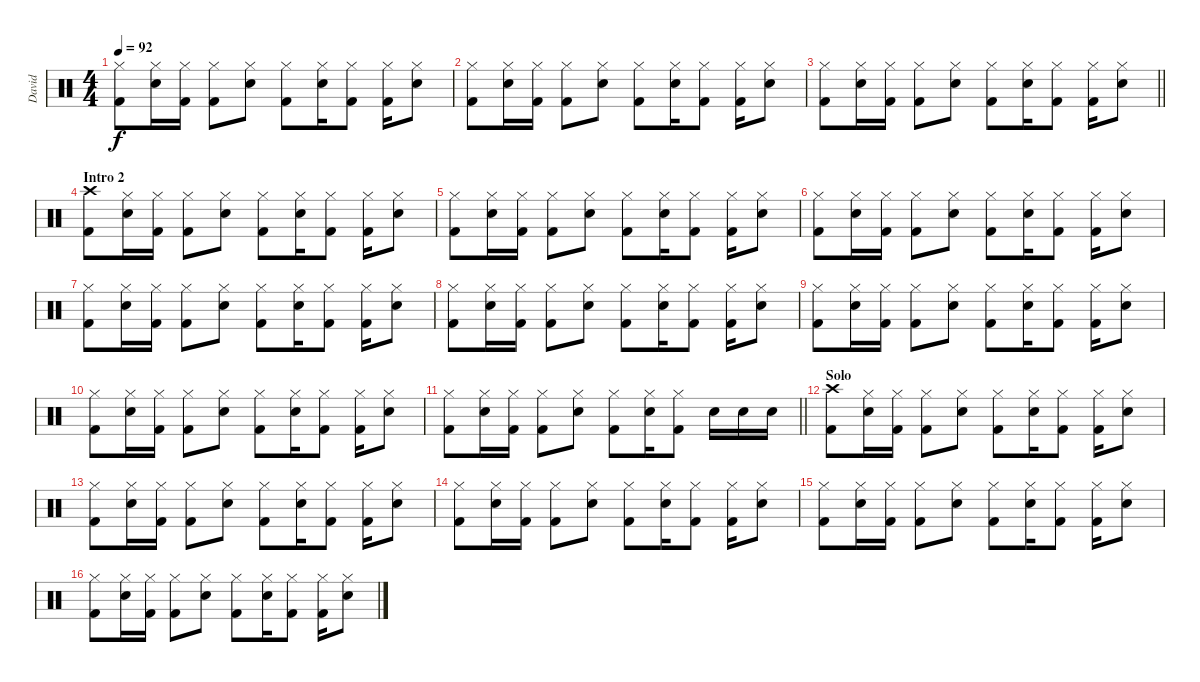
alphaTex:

\track ("David" "David") {instrument percussion}
\staff {score}
\articulation defaults
\ts (4 4)
\tempo 92
\clef neutral
\ks c
("Hi-Hat (closed)" "Kick (hit) 2").8{dy f} ("Hi-Hat (closed)" "Snare (hit) 2").16 ("Hi-Hat (closed)" "Kick (hit) 2").16 ("Hi-Hat (closed)" "Kick (hit) 2").8 ("Hi-Hat (closed)" "Snare (hit) 2").8 ("Hi-Hat (closed)" "Kick (hit) 2").8 ("Hi-Hat (closed)" "Snare (hit) 2").16 ("Hi-Hat (closed)" "Kick (hit) 2").8 ("Hi-Hat (closed)" "Kick (hit) 2").16 ("Hi-Hat (closed)" "Snare (hit) 2").8 |
("Hi-Hat (closed)" "Kick (hit) 2").8 ("Hi-Hat (closed)" "Snare (hit) 2").16 ("Hi-Hat (closed)" "Kick (hit) 2").16 ("Hi-Hat (closed)" "Kick (hit) 2").8 ("Hi-Hat (closed)" "Snare (hit) 2").8 ("Hi-Hat (closed)" "Kick (hit) 2").8 ("Hi-Hat (closed)" "Snare (hit) 2").16 ("Hi-Hat (closed)" "Kick (hit) 2").8 ("Hi-Hat (closed)" "Kick (hit) 2").16 ("Hi-Hat (closed)" "Snare (hit) 2").8 |
\barLineRight lightlight
("Hi-Hat (closed)" "Kick (hit) 2").8 ("Hi-Hat (closed)" "Snare (hit) 2").16 ("Hi-Hat (closed)" "Kick (hit) 2").16 ("Hi-Hat (closed)" "Kick (hit) 2").8 ("Hi-Hat (closed)" "Snare (hit) 2").8 ("Hi-Hat (closed)" "Kick (hit) 2").8 ("Hi-Hat (closed)" "Snare (hit) 2").16 ("Hi-Hat (closed)" "Kick (hit) 2").8 ("Hi-Hat (closed)" "Kick (hit) 2").16 ("Hi-Hat (closed)" "Snare (hit) 2").8 |
\section ("" "Intro 2")
("Crash high (hit)" "Kick (hit) 2").8 ("Hi-Hat (closed)" "Snare (hit) 2").16 ("Hi-Hat (closed)" "Kick (hit) 2").16 ("Hi-Hat (closed)" "Kick (hit) 2").8 ("Hi-Hat (closed)" "Snare (hit) 2").8 ("Hi-Hat (closed)" "Kick (hit) 2").8 ("Hi-Hat (closed)" "Snare (hit) 2").16 ("Hi-Hat (closed)" "Kick (hit) 2").8 ("Hi-Hat (closed)" "Kick (hit) 2").16 ("Hi-Hat (closed)" "Snare (hit) 2").8 |
("Hi-Hat (closed)" "Kick (hit) 2").8 ("Hi-Hat (closed)" "Snare (hit) 2").16 ("Hi-Hat (closed)" "Kick (hit) 2").16 ("Hi-Hat (closed)" "Kick (hit) 2").8 ("Hi-Hat (closed)" "Snare (hit) 2").8 ("Hi-Hat (closed)" "Kick (hit) 2").8 ("Hi-Hat (closed)" "Snare (hit) 2").16 ("Hi-Hat (closed)" "Kick (hit) 2").8 ("Hi-Hat (closed)" "Kick (hit) 2").16 ("Hi-Hat (closed)" "Snare (hit) 2").8 |
("Hi-Hat (closed)" "Kick (hit) 2").8 ("Hi-Hat (closed)" "Snare (hit) 2").16 ("Hi-Hat (closed)" "Kick (hit) 2").16 ("Hi-Hat (closed)" "Kick (hit) 2").8 ("Hi-Hat (closed)" "Snare (hit) 2").8 ("Hi-Hat (closed)" "Kick (hit) 2").8 ("Hi-Hat (closed)" "Snare (hit) 2").16 ("Hi-Hat (closed)" "Kick (hit) 2").8 ("Hi-Hat (closed)" "Kick (hit) 2").16 ("Hi-Hat (closed)" "Snare (hit) 2").8 |
("Hi-Hat (closed)" "Kick (hit) 2").8 ("Hi-Hat (closed)" "Snare (hit) 2").16 ("Hi-Hat (closed)" "Kick (hit) 2").16 ("Hi-Hat (closed)" "Kick (hit) 2").8 ("Hi-Hat (closed)" "Snare (hit) 2").8 ("Hi-Hat (closed)" "Kick (hit) 2").8 ("Hi-Hat (closed)" "Snare (hit) 2").16 ("Hi-Hat (closed)" "Kick (hit) 2").8 ("Hi-Hat (closed)" "Kick (hit) 2").16 ("Hi-Hat (closed)" "Snare (hit) 2").8 |
("Hi-Hat (closed)" "Kick (hit) 2").8 ("Hi-Hat (closed)" "Snare (hit) 2").16 ("Hi-Hat (closed)" "Kick (hit) 2").16 ("Hi-Hat (closed)" "Kick (hit) 2").8 ("Hi-Hat (closed)" "Snare (hit) 2").8 ("Hi-Hat (closed)" "Kick (hit) 2").8 ("Hi-Hat (closed)" "Snare (hit) 2").16 ("Hi-Hat (closed)" "Kick (hit) 2").8 ("Hi-Hat (closed)" "Kick (hit) 2").16 ("Hi-Hat (closed)" "Snare (hit) 2").8 |
("Hi-Hat (closed)" "Kick (hit) 2").8 ("Hi-Hat (closed)" "Snare (hit) 2").16 ("Hi-Hat (closed)" "Kick (hit) 2").16 ("Hi-Hat (closed)" "Kick (hit) 2").8 ("Hi-Hat (closed)" "Snare (hit) 2").8 ("Hi-Hat (closed)" "Kick (hit) 2").8 ("Hi-Hat (closed)" "Snare (hit) 2").16 ("Hi-Hat (closed)" "Kick (hit) 2").8 ("Hi-Hat (closed)" "Kick (hit) 2").16 ("Hi-Hat (closed)" "Snare (hit) 2").8 |
("Hi-Hat (closed)" "Kick (hit) 2").8 ("Hi-Hat (closed)" "Snare (hit) 2").16 ("Hi-Hat (closed)" "Kick (hit) 2").16 ("Hi-Hat (closed)" "Kick (hit) 2").8 ("Hi-Hat (closed)" "Snare (hit) 2").8 ("Hi-Hat (closed)" "Kick (hit) 2").8 ("Hi-Hat (closed)" "Snare (hit) 2").16 ("Hi-Hat (closed)" "Kick (hit) 2").8 ("Hi-Hat (closed)" "Kick (hit) 2").16 ("Hi-Hat (closed)" "Snare (hit) 2").8 |
\barLineRight lightlight
("Hi-Hat (closed)" "Kick (hit) 2").8 ("Hi-Hat (closed)" "Snare (hit) 2").16 ("Hi-Hat (closed)" "Kick (hit) 2").16 ("Hi-Hat (closed)" "Kick (hit) 2").8 ("Hi-Hat (closed)" "Snare (hit) 2").8 ("Hi-Hat (closed)" "Kick (hit) 2").8 ("Hi-Hat (closed)" "Snare (hit) 2").16 ("Hi-Hat (closed)" "Kick (hit) 2").8 "Snare (hit) 2".16 "Snare (hit) 2".16 "Snare (hit) 2".16 |
\section ("" "Solo")
("Crash high (hit)" "Kick (hit) 2").8 ("Hi-Hat (closed)" "Snare (hit) 2").16 ("Hi-Hat (closed)" "Kick (hit) 2").16 ("Hi-Hat (closed)" "Kick (hit) 2").8 ("Hi-Hat (closed)" "Snare (hit) 2").8 ("Hi-Hat (closed)" "Kick (hit) 2").8 ("Hi-Hat (closed)" "Snare (hit) 2").16 ("Hi-Hat (closed)" "Kick (hit) 2").8 ("Hi-Hat (closed)" "Kick (hit) 2").16 ("Hi-Hat (closed)" "Snare (hit) 2").8 |
("Hi-Hat (closed)" "Kick (hit) 2").8 ("Hi-Hat (closed)" "Snare (hit) 2").16 ("Hi-Hat (closed)" "Kick (hit) 2").16 ("Hi-Hat (closed)" "Kick (hit) 2").8 ("Hi-Hat (closed)" "Snare (hit) 2").8 ("Hi-Hat (closed)" "Kick (hit) 2").8 ("Hi-Hat (closed)" "Snare (hit) 2").16 ("Hi-Hat (closed)" "Kick (hit) 2").8 ("Hi-Hat (closed)" "Kick (hit) 2").16 ("Hi-Hat (closed)" "Snare (hit) 2").8 |
("Hi-Hat (closed)" "Kick (hit) 2").8 ("Hi-Hat (closed)" "Snare (hit) 2").16 ("Hi-Hat (closed)" "Kick (hit) 2").16 ("Hi-Hat (closed)" "Kick (hit) 2").8 ("Hi-Hat (closed)" "Snare (hit) 2").8 ("Hi-Hat (closed)" "Kick (hit) 2").8 ("Hi-Hat (closed)" "Snare (hit) 2").16 ("Hi-Hat (closed)" "Kick (hit) 2").8 ("Hi-Hat (closed)" "Kick (hit) 2").16 ("Hi-Hat (closed)" "Snare (hit) 2").8 |
("Hi-Hat (closed)" "Kick (hit) 2").8 ("Hi-Hat (closed)" "Snare (hit) 2").16 ("Hi-Hat (closed)" "Kick (hit) 2").16 ("Hi-Hat (closed)" "Kick (hit) 2").8 ("Hi-Hat (closed)" "Snare (hit) 2").8 ("Hi-Hat (closed)" "Kick (hit) 2").8 ("Hi-Hat (closed)" "Snare (hit) 2").16 ("Hi-Hat (closed)" "Kick (hit) 2").8 ("Hi-Hat (closed)" "Kick (hit) 2").16 ("Hi-Hat (closed)" "Snare (hit) 2").8 |
("Hi-Hat (closed)" "Kick (hit) 2").8 ("Hi-Hat (closed)" "Snare (hit) 2").16 ("Hi-Hat (closed)" "Kick (hit) 2").16 ("Hi-Hat (closed)" "Kick (hit) 2").8 ("Hi-Hat (closed)" "Snare (hit) 2").8 ("Hi-Hat (closed)" "Kick (hit) 2").8 ("Hi-Hat (closed)" "Snare (hit) 2").16 ("Hi-Hat (closed)" "Kick (hit) 2").8 ("Hi-Hat (closed)" "Kick (hit) 2").16 ("Hi-Hat (closed)" "Snare (hit) 2").8
